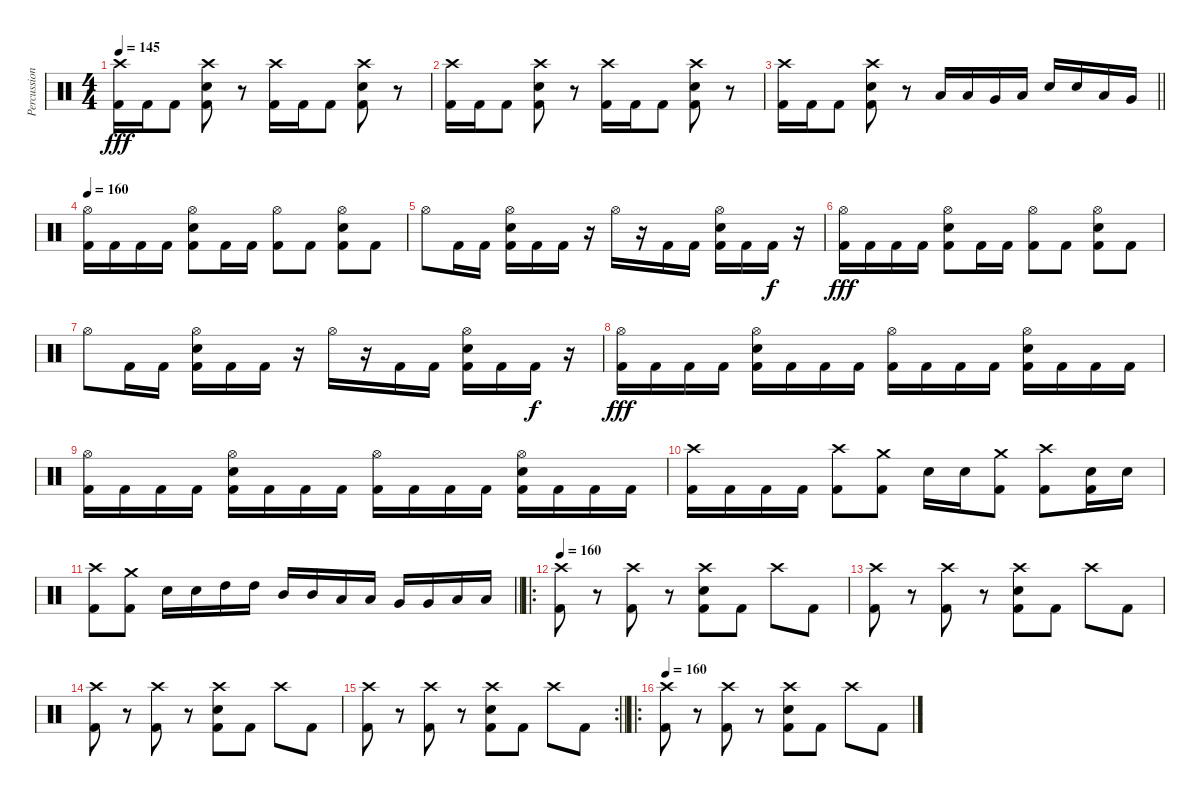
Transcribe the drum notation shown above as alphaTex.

\track ("Percussion" "Percussion") {instrument percussion}
\staff {score}
\articulation defaults
\ts (4 4)
\tempo 145
\clef neutral
\ks c
("Crash high (hit)" "Kick (hit) 2").16{dy fff} "Kick (hit) 2".16 "Kick (hit) 2".8 ("Crash high (hit)" "Snare (hit) 2" "Kick (hit) 2").8 r.8 ("Crash high (hit)" "Kick (hit) 2").16 "Kick (hit) 2".16 "Kick (hit) 2".8 ("Crash high (hit)" "Snare (hit) 2" "Kick (hit) 2").8 r.8 |
("Crash high (hit)" "Kick (hit) 2").16 "Kick (hit) 2".16 "Kick (hit) 2".8 ("Crash high (hit)" "Snare (hit) 2" "Kick (hit) 2").8 r.8 ("Crash high (hit)" "Kick (hit) 2").16 "Kick (hit) 2".16 "Kick (hit) 2".8 ("Crash high (hit)" "Snare (hit) 2" "Kick (hit) 2").8 r.8 |
\barLineRight lightlight
("Crash high (hit)" "Kick (hit) 2").16 "Kick (hit) 2".16 "Kick (hit) 2".8 ("Crash high (hit)" "Snare (hit) 2" "Kick (hit) 2").8 r.8 "Low Tom (hit)".16 "Low Tom (hit)".16 "Very Low Tom (hit)".16 "Low Floor Tom (hit)".16 "Snare (hit) 2".16 "Snare (hit) 2".16 "Low Tom (hit)".16 "Very Low Tom (hit)".16 |
\section ("" "")
\tempo 160
("Hi-Hat (open)" "Kick (hit) 2").16 "Kick (hit) 2".16 "Kick (hit) 2".16 "Kick (hit) 2".16 ("Hi-Hat (open)" "Snare (hit) 2" "Kick (hit) 2").8 "Kick (hit) 2".16 "Kick (hit) 2".16 ("Hi-Hat (open)" "Kick (hit) 2").8 "Kick (hit) 2".8 ("Hi-Hat (open)" "Snare (hit) 2" "Kick (hit) 2").8 "Kick (hit) 2".8 |
"Hi-Hat (open)".8 "Kick (hit) 2".16 "Kick (hit) 2".16 ("Hi-Hat (open)" "Snare (hit) 2" "Kick (hit) 2").16 "Kick (hit) 2".16 "Kick (hit) 2".16 r.16 "Hi-Hat (open)".16 r.16 "Kick (hit) 2".16 "Kick (hit) 2".16 ("Hi-Hat (open)" "Snare (hit) 2" "Kick (hit) 2").16 "Kick (hit) 2".16 "Kick (hit) 2".16{dy f} r.16 |
("Hi-Hat (open)" "Kick (hit) 2").16{dy fff} "Kick (hit) 2".16 "Kick (hit) 2".16 "Kick (hit) 2".16 ("Hi-Hat (open)" "Snare (hit) 2" "Kick (hit) 2").8 "Kick (hit) 2".16 "Kick (hit) 2".16 ("Hi-Hat (open)" "Kick (hit) 2").8 "Kick (hit) 2".8 ("Hi-Hat (open)" "Snare (hit) 2" "Kick (hit) 2").8 "Kick (hit) 2".8 |
"Hi-Hat (open)".8 "Kick (hit) 2".16 "Kick (hit) 2".16 ("Hi-Hat (open)" "Snare (hit) 2" "Kick (hit) 2").16 "Kick (hit) 2".16 "Kick (hit) 2".16 r.16 "Hi-Hat (open)".16 r.16 "Kick (hit) 2".16 "Kick (hit) 2".16 ("Hi-Hat (open)" "Snare (hit) 2" "Kick (hit) 2").16 "Kick (hit) 2".16 "Kick (hit) 2".16{dy f} r.16 |
("Hi-Hat (open)" "Kick (hit) 2").16{dy fff} "Kick (hit) 2".16 "Kick (hit) 2".16 "Kick (hit) 2".16 ("Hi-Hat (open)" "Snare (hit) 2" "Kick (hit) 2").16 "Kick (hit) 2".16 "Kick (hit) 2".16 "Kick (hit) 2".16 ("Hi-Hat (open)" "Kick (hit) 2").16 "Kick (hit) 2".16 "Kick (hit) 2".16 "Kick (hit) 2".16 ("Hi-Hat (open)" "Snare (hit) 2" "Kick (hit) 2").16 "Kick (hit) 2".16 "Kick (hit) 2".16 "Kick (hit) 2".16 |
("Hi-Hat (open)" "Kick (hit) 2").16 "Kick (hit) 2".16 "Kick (hit) 2".16 "Kick (hit) 2".16 ("Hi-Hat (open)" "Snare (hit) 2" "Kick (hit) 2").16 "Kick (hit) 2".16 "Kick (hit) 2".16 "Kick (hit) 2".16 ("Hi-Hat (open)" "Kick (hit) 2").16 "Kick (hit) 2".16 "Kick (hit) 2".16 "Kick (hit) 2".16 ("Hi-Hat (open)" "Snare (hit) 2" "Kick (hit) 2").16 "Kick (hit) 2".16 "Kick (hit) 2".16 "Kick (hit) 2".16 |
("Crash high (hit)" "Kick (hit) 2").16 "Kick (hit) 2".16 "Kick (hit) 2".16 "Kick (hit) 2".16 ("Crash high (hit)" "Kick (hit) 2").8 ("Crash medium (hit)" "Kick (hit) 2").8 "Snare (hit) 2".16 "Snare (hit) 2".16 ("Crash medium (hit)" "Kick (hit) 2").8 ("Crash high (hit)" "Kick (hit) 2").8 ("Kick (hit) 2" "Snare (hit) 2").16 "Snare (hit) 2".16 |
\barLineRight lightlight
("Crash high (hit)" "Kick (hit) 2").8 ("Crash medium (hit)" "Kick (hit) 2").8 "Snare (hit) 2".16 "Snare (hit) 2".16 "High Tom (hit)".16 "High Tom (hit)".16 "Mid Tom (hit)".16 "Mid Tom (hit)".16 "Low Tom (hit)".16 "Low Tom (hit)".16 "Very Low Tom (hit)".16 "Very Low Tom (hit)".16 "Low Floor Tom (hit)".16 "Low Floor Tom (hit)".16 |
\ro
\section ("" "")
\tempo 160
("Crash high (hit)" "Kick (hit) 2").8 r.8 ("Crash high (hit)" "Kick (hit) 2").8 r.8 ("Crash high (hit)" "Snare (hit) 2" "Kick (hit) 2").8 "Kick (hit) 2".8 "Crash high (hit)".8 "Kick (hit) 2".8 |
("Crash high (hit)" "Kick (hit) 2").8 r.8 ("Crash high (hit)" "Kick (hit) 2").8 r.8 ("Crash high (hit)" "Snare (hit) 2" "Kick (hit) 2").8 "Kick (hit) 2".8 "Crash high (hit)".8 "Kick (hit) 2".8 |
("Crash high (hit)" "Kick (hit) 2").8 r.8 ("Crash high (hit)" "Kick (hit) 2").8 r.8 ("Crash high (hit)" "Snare (hit) 2" "Kick (hit) 2").8 "Kick (hit) 2".8 "Crash high (hit)".8 "Kick (hit) 2".8 |
\rc 2
\barLineRight lightlight
("Crash high (hit)" "Kick (hit) 2").8 r.8 ("Crash high (hit)" "Kick (hit) 2").8 r.8 ("Crash high (hit)" "Snare (hit) 2" "Kick (hit) 2").8 "Kick (hit) 2".8 "Crash high (hit)".8 "Kick (hit) 2".8 |
\ro
\section ("" "")
\tempo 160
("Crash high (hit)" "Kick (hit) 2").8 r.8 ("Crash high (hit)" "Kick (hit) 2").8 r.8 ("Crash high (hit)" "Snare (hit) 2" "Kick (hit) 2").8 "Kick (hit) 2".8 "Crash high (hit)".8 "Kick (hit) 2".8
